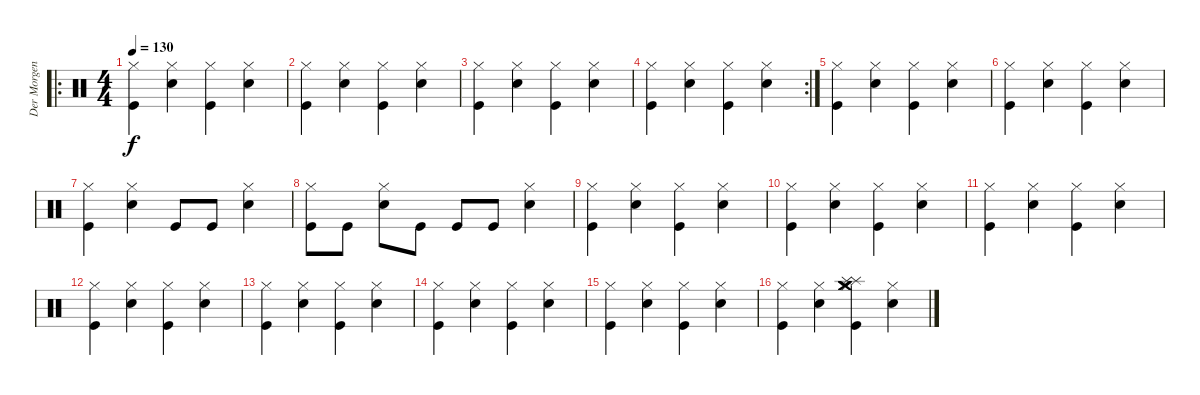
\track ("Der Morgenstern" "Der Morgen") {instrument percussion}
\staff {score}
\articulation defaults
\ro
\ts (4 4)
\tempo 130
\clef neutral
\ks c
("Hi-Hat (closed)" "Kick (hit)").4{dy f} ("Hi-Hat (closed)" "Snare (hit) 2").4 ("Hi-Hat (closed)" "Kick (hit)").4 ("Hi-Hat (closed)" "Snare (hit) 2").4 |
("Hi-Hat (closed)" "Kick (hit)").4 ("Hi-Hat (closed)" "Snare (hit) 2").4 ("Hi-Hat (closed)" "Kick (hit)").4 ("Hi-Hat (closed)" "Snare (hit) 2").4 |
("Hi-Hat (closed)" "Kick (hit)").4 ("Hi-Hat (closed)" "Snare (hit) 2").4 ("Hi-Hat (closed)" "Kick (hit)").4 ("Hi-Hat (closed)" "Snare (hit) 2").4 |
\rc 2
("Hi-Hat (closed)" "Kick (hit)").4 ("Hi-Hat (closed)" "Snare (hit) 2").4 ("Hi-Hat (closed)" "Kick (hit)").4 ("Hi-Hat (closed)" "Snare (hit) 2").4 |
("Hi-Hat (closed)" "Kick (hit)").4 ("Hi-Hat (closed)" "Snare (hit) 2").4 ("Hi-Hat (closed)" "Kick (hit)").4 ("Hi-Hat (closed)" "Snare (hit) 2").4 |
("Hi-Hat (closed)" "Kick (hit)").4 ("Hi-Hat (closed)" "Snare (hit) 2").4 ("Hi-Hat (closed)" "Kick (hit)").4 ("Hi-Hat (closed)" "Snare (hit) 2").4 |
("Hi-Hat (closed)" "Kick (hit)").4 ("Hi-Hat (closed)" "Snare (hit) 2").4 "Kick (hit)".8 "Kick (hit)".8 ("Hi-Hat (closed)" "Snare (hit) 2").4 |
("Hi-Hat (closed)" "Kick (hit)").8 "Kick (hit)".8 ("Hi-Hat (closed)" "Snare (hit) 2").8 "Kick (hit)".8 "Kick (hit)".8 "Kick (hit)".8 ("Hi-Hat (closed)" "Snare (hit) 2").4 |
("Hi-Hat (closed)" "Kick (hit)").4 ("Hi-Hat (closed)" "Snare (hit) 2").4 ("Hi-Hat (closed)" "Kick (hit)").4 ("Hi-Hat (closed)" "Snare (hit) 2").4 |
("Hi-Hat (closed)" "Kick (hit)").4 ("Hi-Hat (closed)" "Snare (hit) 2").4 ("Hi-Hat (closed)" "Kick (hit)").4 ("Hi-Hat (closed)" "Snare (hit) 2").4 |
("Hi-Hat (closed)" "Kick (hit)").4 ("Hi-Hat (closed)" "Snare (hit) 2").4 ("Hi-Hat (closed)" "Kick (hit)").4 ("Hi-Hat (closed)" "Snare (hit) 2").4 |
("Hi-Hat (closed)" "Kick (hit)").4 ("Hi-Hat (closed)" "Snare (hit) 2").4 ("Hi-Hat (closed)" "Kick (hit)").4 ("Hi-Hat (closed)" "Snare (hit) 2").4 |
("Hi-Hat (closed)" "Kick (hit)").4 ("Hi-Hat (closed)" "Snare (hit) 2").4 ("Hi-Hat (closed)" "Kick (hit)").4 ("Hi-Hat (closed)" "Snare (hit) 2").4 |
("Hi-Hat (closed)" "Kick (hit)").4 ("Hi-Hat (closed)" "Snare (hit) 2").4 ("Hi-Hat (closed)" "Kick (hit)").4 ("Hi-Hat (closed)" "Snare (hit) 2").4 |
("Hi-Hat (closed)" "Kick (hit)").4 ("Hi-Hat (closed)" "Snare (hit) 2").4 ("Hi-Hat (closed)" "Kick (hit)").4 ("Hi-Hat (closed)" "Snare (hit) 2").4 |
("Hi-Hat (closed)" "Kick (hit)").4 ("Hi-Hat (closed)" "Snare (hit) 2").4 ("Crash medium (hit)" "Crash medium (hit)" "Hi-Hat (closed)" "Splash (hit)" "Kick (hit)" "Splash (hit)").4 ("Hi-Hat (closed)" "Snare (hit) 2").4
